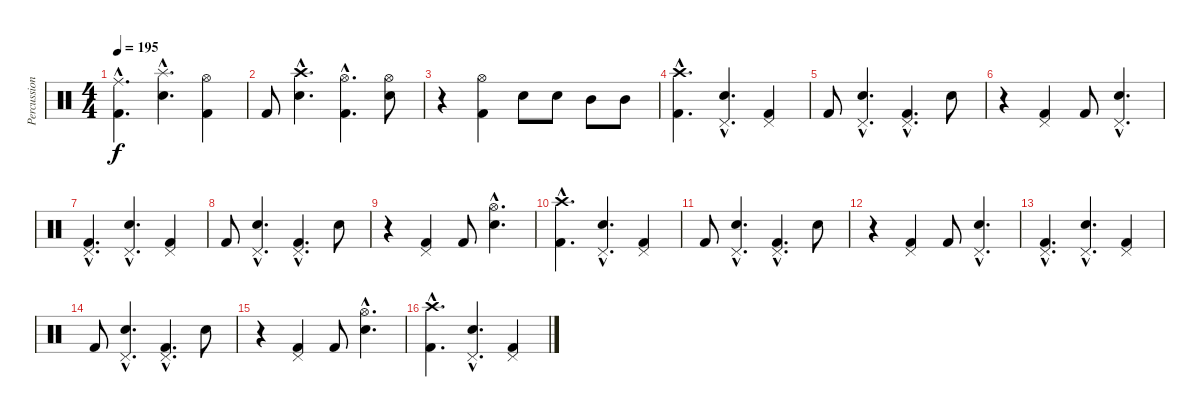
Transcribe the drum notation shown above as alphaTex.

\track ("Percussion" "Percussion") {instrument percussion}
\staff {score}
\articulation defaults
\ts (4 4)
\tempo 195
\clef neutral
\ks c
("Ride (middle)"{hac} "Kick (hit) 2"{hac}).4{d dy f} ("Splash (hit)"{hac} "Snare (hit) 2"{hac}).4{d} ("Hi-Hat (open)" "Kick (hit) 2").4 |
"Kick (hit) 2".8 ("Crash high (hit)"{hac} "Snare (hit) 2"{hac}).4{d} ("Hi-Hat (open)"{hac} "Kick (hit) 2"{hac}).4{d} ("Hi-Hat (open)" "Snare (hit) 2").8 |
r.4 ("Hi-Hat (open)" "Kick (hit) 2").4 "Snare (hit) 2".8 "Snare (hit) 2".8 "Mid Tom (hit)".8 "Mid Tom (hit)".8 |
("Crash high (hit)"{hac} "Kick (hit) 2"{hac}).4{d} ("Pedal Hi-Hat (hit)"{hac} "Snare (hit) 2"{hac}).4{d} ("Pedal Hi-Hat (hit)" "Kick (hit) 2").4 |
"Kick (hit) 2".8 ("Pedal Hi-Hat (hit)"{hac} "Snare (hit) 2"{hac}).4{d} ("Pedal Hi-Hat (hit)"{hac} "Kick (hit) 2"{hac}).4{d} "Snare (hit) 2".8 |
r.4 ("Pedal Hi-Hat (hit)" "Kick (hit) 2").4 "Kick (hit) 2".8 ("Pedal Hi-Hat (hit)"{hac} "Snare (hit) 2"{hac}).4{d} |
("Pedal Hi-Hat (hit)"{hac} "Kick (hit) 2"{hac}).4{d} ("Pedal Hi-Hat (hit)"{hac} "Snare (hit) 2"{hac}).4{d} ("Pedal Hi-Hat (hit)" "Kick (hit) 2").4 |
"Kick (hit) 2".8 ("Pedal Hi-Hat (hit)"{hac} "Snare (hit) 2"{hac}).4{d} ("Pedal Hi-Hat (hit)"{hac} "Kick (hit) 2"{hac}).4{d} "Snare (hit) 2".8 |
r.4 ("Pedal Hi-Hat (hit)" "Kick (hit) 2").4 "Kick (hit) 2".8 ("Hi-Hat (open)"{hac} "Snare (hit) 2"{hac}).4{d} |
("Crash high (hit)"{hac} "Kick (hit) 2"{hac}).4{d} ("Pedal Hi-Hat (hit)"{hac} "Snare (hit) 2"{hac}).4{d} ("Pedal Hi-Hat (hit)" "Kick (hit) 2").4 |
"Kick (hit) 2".8 ("Pedal Hi-Hat (hit)"{hac} "Snare (hit) 2"{hac}).4{d} ("Pedal Hi-Hat (hit)"{hac} "Kick (hit) 2"{hac}).4{d} "Snare (hit) 2".8 |
r.4 ("Pedal Hi-Hat (hit)" "Kick (hit) 2").4 "Kick (hit) 2".8 ("Pedal Hi-Hat (hit)"{hac} "Snare (hit) 2"{hac}).4{d} |
("Pedal Hi-Hat (hit)"{hac} "Kick (hit) 2"{hac}).4{d} ("Pedal Hi-Hat (hit)"{hac} "Snare (hit) 2"{hac}).4{d} ("Pedal Hi-Hat (hit)" "Kick (hit) 2").4 |
"Kick (hit) 2".8 ("Pedal Hi-Hat (hit)"{hac} "Snare (hit) 2"{hac}).4{d} ("Pedal Hi-Hat (hit)"{hac} "Kick (hit) 2"{hac}).4{d} "Snare (hit) 2".8 |
r.4 ("Pedal Hi-Hat (hit)" "Kick (hit) 2").4 "Kick (hit) 2".8 ("Hi-Hat (open)"{hac} "Snare (hit) 2"{hac}).4{d} |
("Crash high (hit)"{hac} "Kick (hit) 2"{hac}).4{d} ("Pedal Hi-Hat (hit)"{hac} "Snare (hit) 2"{hac}).4{d} ("Pedal Hi-Hat (hit)" "Kick (hit) 2").4
